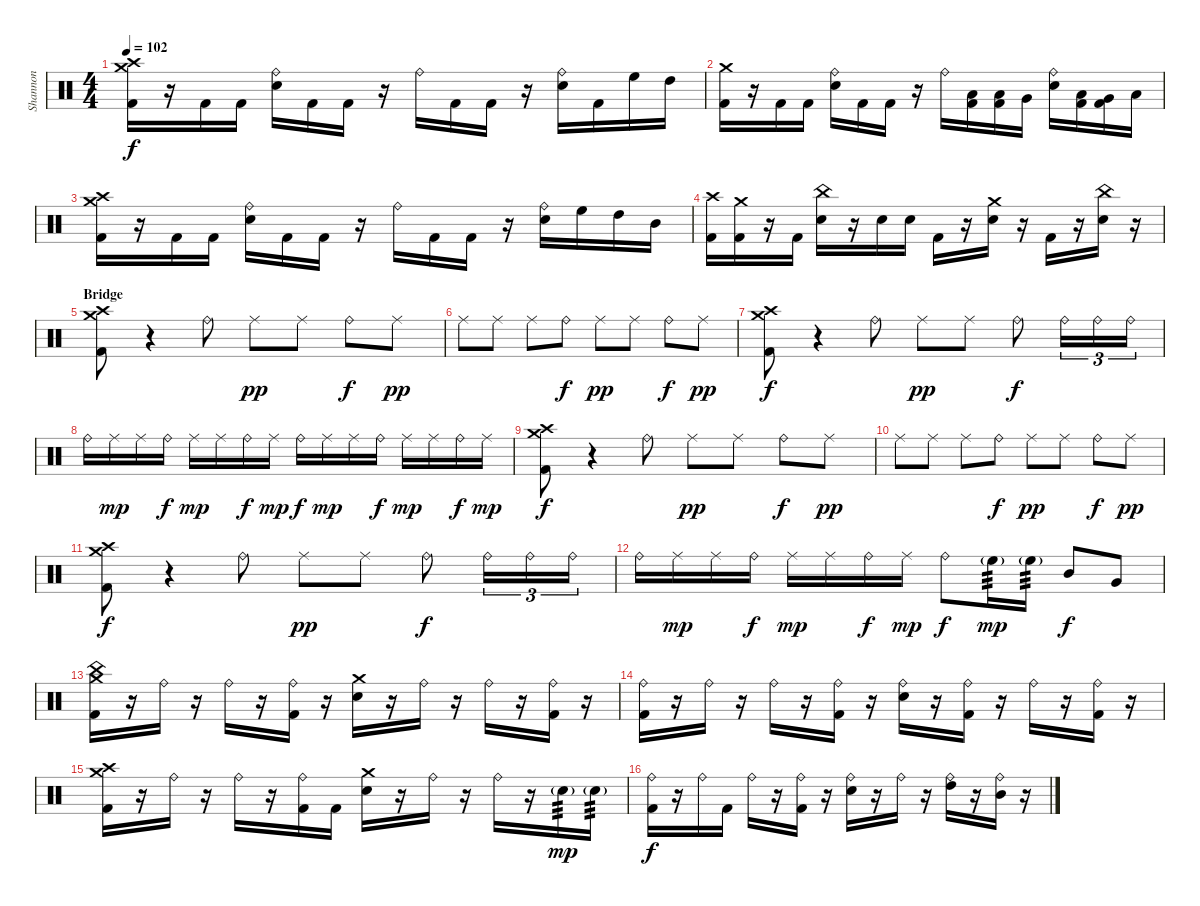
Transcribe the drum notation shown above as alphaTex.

\track ("Shannon" "Shannon") {instrument percussion}
\staff {score}
\articulation defaults
\ts (4 4)
\tempo 102
\clef neutral
\ks c
("Crash high (hit)" "Crash medium (hit)" "Kick (hit) 2").16{dy f} r.16 "Kick (hit) 2".16 "Kick (hit) 2".16 ("Ride (bell)" "Electric Snare (hit)").16 "Kick (hit) 2".16 "Kick (hit) 2".16 r.16 "Ride (bell)".16 "Kick (hit) 2".16 "Kick (hit) 2".16 r.16 ("Ride (bell)" "Electric Snare (hit)").16 "Kick (hit) 2".16 "High Floor Tom (hit)".16 "High Tom (hit)".16 |
("Crash medium (hit)" "Kick (hit) 2").16 r.16 "Kick (hit) 2".16 "Kick (hit) 2".16 ("Ride (bell)" "Electric Snare (hit)").16 "Kick (hit) 2".16 "Kick (hit) 2".16 r.16 "Ride (bell)".16 ("Low Tom (hit)" "Kick (hit) 2").16 ("Low Tom (hit)" "Kick (hit) 2").16 "Very Low Tom (hit)".16 ("Ride (bell)" "Electric Snare (hit)").16 ("Low Tom (hit)" "Kick (hit) 2").16 ("Very Low Tom (hit)" "Kick (hit) 2").16 "Low Floor Tom (hit)".16 |
("Crash high (hit)" "Crash medium (hit)" "Kick (hit) 2").16 r.16 "Kick (hit) 2".16 "Kick (hit) 2".16 ("Ride (bell)" "Electric Snare (hit)").16 "Kick (hit) 2".16 "Kick (hit) 2".16 r.16 "Ride (bell)".16 "Kick (hit) 2".16 "Kick (hit) 2".16 r.16 ("Ride (bell)" "Electric Snare (hit)").16 "High Floor Tom (hit)".16 "High Tom (hit)".16 "Mid Tom (hit)".16 |
("Crash high (hit)" "Kick (hit) 2").16 ("Crash medium (hit)" "Kick (hit) 2").16 r.16 "Kick (hit) 2".16 ("China (hit)" "Electric Snare (hit)").16 r.16 "Electric Snare (hit)".16 "Electric Snare (hit)".16 "Kick (hit) 2".16 r.16 ("Crash medium (hit)" "Electric Snare (hit)").16 r.16 "Kick (hit) 2".16 r.16 ("China (hit)" "Electric Snare (hit)").16 r.16 |
\section ("" "Bridge")
("Crash high (hit)" "Crash medium (hit)" "Kick (hit) 2").8 r.4 "Ride (bell)".8 "Ride (middle)".8{dy pp} "Ride (middle)".8 "Ride (bell)".8{dy f} "Ride (middle)".8{dy pp} |
"Ride (middle)".8 "Ride (middle)".8 "Ride (middle)".8 "Ride (bell)".8{dy f} "Ride (middle)".8{dy pp} "Ride (middle)".8 "Ride (bell)".8{dy f} "Ride (middle)".8{dy pp} |
("Crash high (hit)" "Crash medium (hit)" "Kick (hit) 2").8{dy f} r.4 "Ride (bell)".8 "Ride (middle)".8{dy pp} "Ride (middle)".8 "Ride (bell)".8{dy f} "Ride (bell)".16{tu (3 2)} "Ride (bell)".16{tu (3 2)} "Ride (bell)".16{tu (3 2)} |
"Ride (bell)".16 "Ride (middle)".16{dy mp} "Ride (middle)".16 "Ride (bell)".16{dy f} "Ride (middle)".16{dy mp} "Ride (middle)".16 "Ride (bell)".16{dy f} "Ride (middle)".16{dy mp} "Ride (bell)".16{dy f} "Ride (middle)".16{dy mp} "Ride (middle)".16 "Ride (bell)".16{dy f} "Ride (middle)".16{dy mp} "Ride (middle)".16 "Ride (bell)".16{dy f} "Ride (middle)".16{dy mp} |
("Crash high (hit)" "Crash medium (hit)" "Kick (hit) 2").8{dy f} r.4 "Ride (bell)".8 "Ride (middle)".8{dy pp} "Ride (middle)".8 "Ride (bell)".8{dy f} "Ride (middle)".8{dy pp} |
"Ride (middle)".8 "Ride (middle)".8 "Ride (middle)".8 "Ride (bell)".8{dy f} "Ride (middle)".8{dy pp} "Ride (middle)".8 "Ride (bell)".8{dy f} "Ride (middle)".8{dy pp} |
("Crash high (hit)" "Crash medium (hit)" "Kick (hit) 2").8{dy f} r.4 "Ride (bell)".8 "Ride (middle)".8{dy pp} "Ride (middle)".8 "Ride (bell)".8{dy f} "Ride (bell)".16{tu (3 2)} "Ride (bell)".16{tu (3 2)} "Ride (bell)".16{tu (3 2)} |
"Ride (bell)".16 "Ride (middle)".16{dy mp} "Ride (middle)".16 "Ride (bell)".16{dy f} "Ride (middle)".16{dy mp} "Ride (middle)".16 "Ride (bell)".16{dy f} "Ride (middle)".16{dy mp} "Ride (bell)".8{dy f} "High Floor Tom (hit)"{g}.16{tp 3 dy mp} "High Floor Tom (hit)"{g}.16{tp 3} "Mid Tom (hit)".8{dy f} "Very Low Tom (hit)".8 |
("Crash medium (hit)" "China (hit)" "Kick (hit) 2").16 r.16 "Ride (bell)".16 r.16 "Ride (bell)".16 r.16 ("Ride (bell)" "Kick (hit) 2").16 r.16 ("Crash medium (hit)" "Electric Snare (hit)").16 r.16 "Ride (bell)".16 r.16 "Ride (bell)".16 r.16 ("Ride (bell)" "Kick (hit) 2").16 r.16 |
("Ride (bell)" "Kick (hit) 2").16 r.16 "Ride (bell)".16 r.16 "Ride (bell)".16 r.16 ("Ride (bell)" "Kick (hit) 2").16 r.16 ("Ride (bell)" "Electric Snare (hit)").16 r.16 ("Ride (bell)" "Kick (hit) 2").16 r.16 "Ride (bell)".16 r.16 ("Ride (bell)" "Kick (hit) 2").16 r.16 |
("Crash medium (hit)" "Crash high (hit)" "Kick (hit) 2").16 r.16 "Ride (bell)".16 r.16 "Ride (bell)".16 r.16 ("Ride (bell)" "Kick (hit) 2").16 "Kick (hit) 2".16 ("Crash medium (hit)" "Electric Snare (hit)").16 r.16 "Ride (bell)".16 r.16 "Ride (bell)".16 r.16 "Electric Snare (hit)"{g}.16{tp 3 dy mp} "Electric Snare (hit)"{g}.16{tp 3} |
("Ride (bell)" "Kick (hit) 2").16{dy f} r.16 "Ride (bell)".16 "Kick (hit) 2".16 "Ride (bell)".16 r.16 ("Ride (bell)" "Kick (hit) 2").16 r.16 ("Ride (bell)" "Electric Snare (hit)").16 r.16 "Ride (bell)".16 r.16 ("Ride (bell)" "High Tom (hit)").16 r.16 ("Ride (bell)" "Mid Tom (hit)").16 r.16
